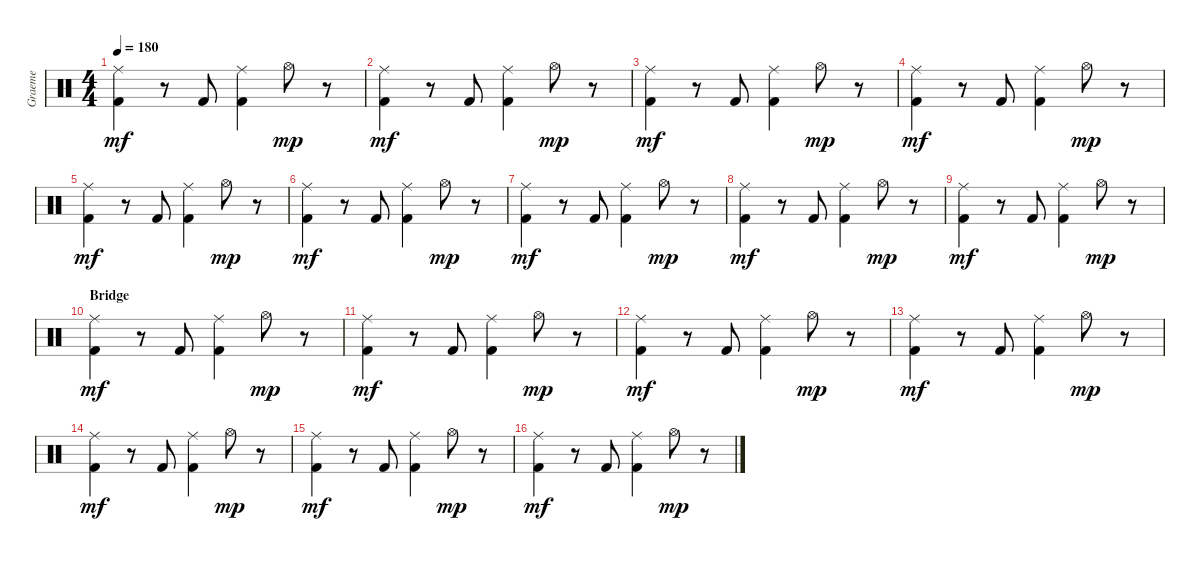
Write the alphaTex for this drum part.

\track ("Graeme" "Graeme") {instrument percussion}
\staff {score}
\articulation defaults
\ts (4 4)
\tempo 180
\clef neutral
\ks c
("Ride (middle)" "Kick (hit) 2").4{dy mf} r.8 "Kick (hit) 2".8 ("Ride (middle)" "Kick (hit) 2").4 "Hi-Hat (open)".8{dy mp} r.8 |
("Ride (middle)" "Kick (hit) 2").4{dy mf} r.8 "Kick (hit) 2".8 ("Ride (middle)" "Kick (hit) 2").4 "Hi-Hat (open)".8{dy mp} r.8 |
("Ride (middle)" "Kick (hit) 2").4{dy mf} r.8 "Kick (hit) 2".8 ("Ride (middle)" "Kick (hit) 2").4 "Hi-Hat (open)".8{dy mp} r.8 |
("Ride (middle)" "Kick (hit) 2").4{dy mf} r.8 "Kick (hit) 2".8 ("Ride (middle)" "Kick (hit) 2").4 "Hi-Hat (open)".8{dy mp} r.8 |
("Ride (middle)" "Kick (hit) 2").4{dy mf} r.8 "Kick (hit) 2".8 ("Ride (middle)" "Kick (hit) 2").4 "Hi-Hat (open)".8{dy mp} r.8 |
("Ride (middle)" "Kick (hit) 2").4{dy mf} r.8 "Kick (hit) 2".8 ("Ride (middle)" "Kick (hit) 2").4 "Hi-Hat (open)".8{dy mp} r.8 |
("Ride (middle)" "Kick (hit) 2").4{dy mf} r.8 "Kick (hit) 2".8 ("Ride (middle)" "Kick (hit) 2").4 "Hi-Hat (open)".8{dy mp} r.8 |
("Ride (middle)" "Kick (hit) 2").4{dy mf} r.8 "Kick (hit) 2".8 ("Ride (middle)" "Kick (hit) 2").4 "Hi-Hat (open)".8{dy mp} r.8 |
("Ride (middle)" "Kick (hit) 2").4{dy mf} r.8 "Kick (hit) 2".8 ("Ride (middle)" "Kick (hit) 2").4 "Hi-Hat (open)".8{dy mp} r.8 |
\section ("" "Bridge")
("Ride (middle)" "Kick (hit) 2").4{dy mf} r.8 "Kick (hit) 2".8 ("Ride (middle)" "Kick (hit) 2").4 "Hi-Hat (open)".8{dy mp} r.8 |
("Ride (middle)" "Kick (hit) 2").4{dy mf} r.8 "Kick (hit) 2".8 ("Ride (middle)" "Kick (hit) 2").4 "Hi-Hat (open)".8{dy mp} r.8 |
("Ride (middle)" "Kick (hit) 2").4{dy mf} r.8 "Kick (hit) 2".8 ("Ride (middle)" "Kick (hit) 2").4 "Hi-Hat (open)".8{dy mp} r.8 |
("Ride (middle)" "Kick (hit) 2").4{dy mf} r.8 "Kick (hit) 2".8 ("Ride (middle)" "Kick (hit) 2").4 "Hi-Hat (open)".8{dy mp} r.8 |
("Ride (middle)" "Kick (hit) 2").4{dy mf} r.8 "Kick (hit) 2".8 ("Ride (middle)" "Kick (hit) 2").4 "Hi-Hat (open)".8{dy mp} r.8 |
("Ride (middle)" "Kick (hit) 2").4{dy mf} r.8 "Kick (hit) 2".8 ("Ride (middle)" "Kick (hit) 2").4 "Hi-Hat (open)".8{dy mp} r.8 |
("Ride (middle)" "Kick (hit) 2").4{dy mf} r.8 "Kick (hit) 2".8 ("Ride (middle)" "Kick (hit) 2").4 "Hi-Hat (open)".8{dy mp} r.8
